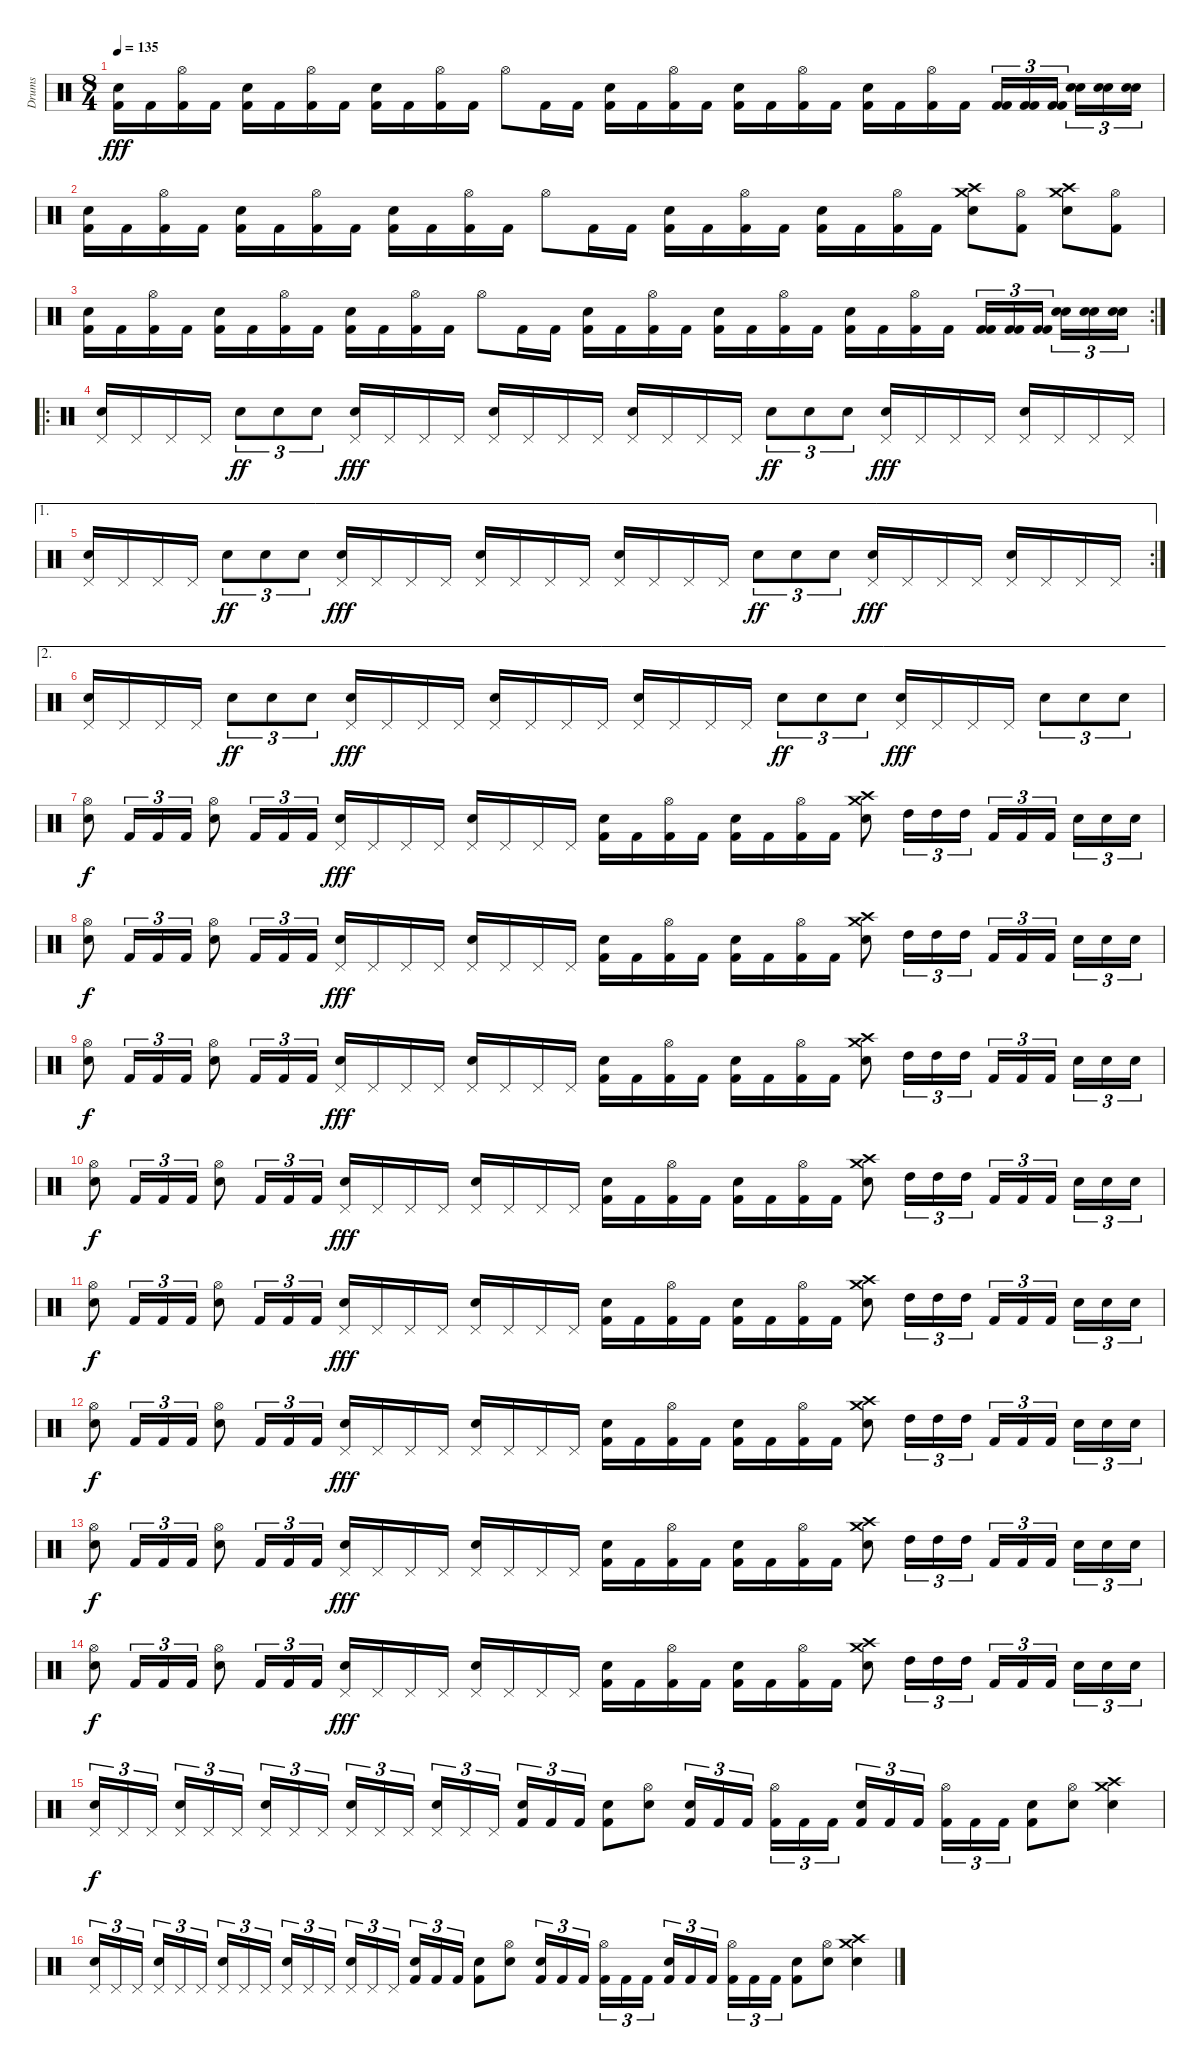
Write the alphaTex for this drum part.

\track ("Drums" "Drums") {instrument percussion}
\staff {score}
\articulation defaults
\ts (8 4)
\tempo 135
\clef neutral
\ks c
("Electric Snare (hit)" "Kick (hit) 2").16{dy fff} "Kick (hit) 2".16 ("Hi-Hat (open)" "Kick (hit) 2").16 "Kick (hit) 2".16 ("Electric Snare (hit)" "Kick (hit) 2").16 "Kick (hit) 2".16 ("Hi-Hat (open)" "Kick (hit) 2").16 "Kick (hit) 2".16 ("Kick (hit) 2" "Electric Snare (hit)").16 "Kick (hit) 2".16 ("Hi-Hat (open)" "Kick (hit) 2").16 "Kick (hit) 2".16 "Hi-Hat (open)".8 "Kick (hit) 2".16 "Kick (hit) 2".16 ("Kick (hit) 2" "Electric Snare (hit)").16 "Kick (hit) 2".16 ("Kick (hit) 2" "Hi-Hat (open)").16 "Kick (hit) 2".16 ("Electric Snare (hit)" "Kick (hit) 2").16 "Kick (hit) 2".16 ("Kick (hit) 2" "Hi-Hat (open)").16 "Kick (hit) 2".16 ("Electric Snare (hit)" "Kick (hit) 2").16 "Kick (hit) 2".16 ("Kick (hit) 2" "Hi-Hat (open)").16 "Kick (hit) 2".16 ("Kick (hit) 2" "Kick (hit) 2").16{tu (3 2)} ("Kick (hit) 2" "Kick (hit) 2").16{tu (3 2)} ("Kick (hit) 2" "Kick (hit) 2").16{tu (3 2)} ("Electric Snare (hit)" "Electric Snare (hit)").16{tu (3 2)} ("Electric Snare (hit)" "Electric Snare (hit)").16{tu (3 2)} ("Electric Snare (hit)" "Electric Snare (hit)").16{tu (3 2)} |
("Electric Snare (hit)" "Kick (hit) 2").16 "Kick (hit) 2".16 ("Hi-Hat (open)" "Kick (hit) 2").16 "Kick (hit) 2".16 ("Electric Snare (hit)" "Kick (hit) 2").16 "Kick (hit) 2".16 ("Hi-Hat (open)" "Kick (hit) 2").16 "Kick (hit) 2".16 ("Kick (hit) 2" "Electric Snare (hit)").16 "Kick (hit) 2".16 ("Hi-Hat (open)" "Kick (hit) 2").16 "Kick (hit) 2".16 "Hi-Hat (open)".8 "Kick (hit) 2".16 "Kick (hit) 2".16 ("Kick (hit) 2" "Electric Snare (hit)").16 "Kick (hit) 2".16 ("Kick (hit) 2" "Hi-Hat (open)").16 "Kick (hit) 2".16 ("Electric Snare (hit)" "Kick (hit) 2").16 "Kick (hit) 2".16 ("Kick (hit) 2" "Hi-Hat (open)").16 "Kick (hit) 2".16 ("Crash medium (hit)" "Crash high (hit)" "Electric Snare (hit)").8 ("Kick (hit) 2" "Hi-Hat (open)").8 ("Crash high (hit)" "Crash medium (hit)" "Electric Snare (hit)").8 ("Kick (hit) 2" "Hi-Hat (open)").8 |
\rc 2
("Electric Snare (hit)" "Kick (hit) 2").16 "Kick (hit) 2".16 ("Hi-Hat (open)" "Kick (hit) 2").16 "Kick (hit) 2".16 ("Electric Snare (hit)" "Kick (hit) 2").16 "Kick (hit) 2".16 ("Hi-Hat (open)" "Kick (hit) 2").16 "Kick (hit) 2".16 ("Kick (hit) 2" "Electric Snare (hit)").16 "Kick (hit) 2".16 ("Hi-Hat (open)" "Kick (hit) 2").16 "Kick (hit) 2".16 "Hi-Hat (open)".8 "Kick (hit) 2".16 "Kick (hit) 2".16 ("Kick (hit) 2" "Electric Snare (hit)").16 "Kick (hit) 2".16 ("Kick (hit) 2" "Hi-Hat (open)").16 "Kick (hit) 2".16 ("Electric Snare (hit)" "Kick (hit) 2").16 "Kick (hit) 2".16 ("Kick (hit) 2" "Hi-Hat (open)").16 "Kick (hit) 2".16 ("Electric Snare (hit)" "Kick (hit) 2").16 "Kick (hit) 2".16 ("Kick (hit) 2" "Hi-Hat (open)").16 "Kick (hit) 2".16 ("Kick (hit) 2" "Kick (hit) 2").16{tu (3 2)} ("Kick (hit) 2" "Kick (hit) 2").16{tu (3 2)} ("Kick (hit) 2" "Kick (hit) 2").16{tu (3 2)} ("Electric Snare (hit)" "Electric Snare (hit)").16{tu (3 2)} ("Electric Snare (hit)" "Electric Snare (hit)").16{tu (3 2)} ("Electric Snare (hit)" "Electric Snare (hit)").16{tu (3 2)} |
\ro
("Pedal Hi-Hat (hit)" "Electric Snare (hit)").16 "Pedal Hi-Hat (hit)".16 "Pedal Hi-Hat (hit)".16 "Pedal Hi-Hat (hit)".16 "Electric Snare (hit)".8{tu (3 2) dy ff} "Electric Snare (hit)".8{tu (3 2)} "Electric Snare (hit)".8{tu (3 2)} ("Pedal Hi-Hat (hit)" "Electric Snare (hit)").16{dy fff} "Pedal Hi-Hat (hit)".16 "Pedal Hi-Hat (hit)".16 "Pedal Hi-Hat (hit)".16 ("Electric Snare (hit)" "Pedal Hi-Hat (hit)").16 "Pedal Hi-Hat (hit)".16 "Pedal Hi-Hat (hit)".16 "Pedal Hi-Hat (hit)".16 ("Pedal Hi-Hat (hit)" "Electric Snare (hit)").16 "Pedal Hi-Hat (hit)".16 "Pedal Hi-Hat (hit)".16 "Pedal Hi-Hat (hit)".16 "Electric Snare (hit)".8{tu (3 2) dy ff} "Electric Snare (hit)".8{tu (3 2)} "Electric Snare (hit)".8{tu (3 2)} ("Electric Snare (hit)" "Pedal Hi-Hat (hit)").16{dy fff} "Pedal Hi-Hat (hit)".16 "Pedal Hi-Hat (hit)".16 "Pedal Hi-Hat (hit)".16 ("Pedal Hi-Hat (hit)" "Electric Snare (hit)").16 "Pedal Hi-Hat (hit)".16 "Pedal Hi-Hat (hit)".16 "Pedal Hi-Hat (hit)".16 |
\ae 1
\rc 2
("Pedal Hi-Hat (hit)" "Electric Snare (hit)").16 "Pedal Hi-Hat (hit)".16 "Pedal Hi-Hat (hit)".16 "Pedal Hi-Hat (hit)".16 "Electric Snare (hit)".8{tu (3 2) dy ff} "Electric Snare (hit)".8{tu (3 2)} "Electric Snare (hit)".8{tu (3 2)} ("Pedal Hi-Hat (hit)" "Electric Snare (hit)").16{dy fff} "Pedal Hi-Hat (hit)".16 "Pedal Hi-Hat (hit)".16 "Pedal Hi-Hat (hit)".16 ("Electric Snare (hit)" "Pedal Hi-Hat (hit)").16 "Pedal Hi-Hat (hit)".16 "Pedal Hi-Hat (hit)".16 "Pedal Hi-Hat (hit)".16 ("Pedal Hi-Hat (hit)" "Electric Snare (hit)").16 "Pedal Hi-Hat (hit)".16 "Pedal Hi-Hat (hit)".16 "Pedal Hi-Hat (hit)".16 "Electric Snare (hit)".8{tu (3 2) dy ff} "Electric Snare (hit)".8{tu (3 2)} "Electric Snare (hit)".8{tu (3 2)} ("Electric Snare (hit)" "Pedal Hi-Hat (hit)").16{dy fff} "Pedal Hi-Hat (hit)".16 "Pedal Hi-Hat (hit)".16 "Pedal Hi-Hat (hit)".16 ("Pedal Hi-Hat (hit)" "Electric Snare (hit)").16 "Pedal Hi-Hat (hit)".16 "Pedal Hi-Hat (hit)".16 "Pedal Hi-Hat (hit)".16 |
\ae 2
("Pedal Hi-Hat (hit)" "Electric Snare (hit)").16 "Pedal Hi-Hat (hit)".16 "Pedal Hi-Hat (hit)".16 "Pedal Hi-Hat (hit)".16 "Electric Snare (hit)".8{tu (3 2) dy ff} "Electric Snare (hit)".8{tu (3 2)} "Electric Snare (hit)".8{tu (3 2)} ("Pedal Hi-Hat (hit)" "Electric Snare (hit)").16{dy fff} "Pedal Hi-Hat (hit)".16 "Pedal Hi-Hat (hit)".16 "Pedal Hi-Hat (hit)".16 ("Electric Snare (hit)" "Pedal Hi-Hat (hit)").16 "Pedal Hi-Hat (hit)".16 "Pedal Hi-Hat (hit)".16 "Pedal Hi-Hat (hit)".16 ("Pedal Hi-Hat (hit)" "Electric Snare (hit)").16 "Pedal Hi-Hat (hit)".16 "Pedal Hi-Hat (hit)".16 "Pedal Hi-Hat (hit)".16 "Electric Snare (hit)".8{tu (3 2) dy ff} "Electric Snare (hit)".8{tu (3 2)} "Electric Snare (hit)".8{tu (3 2)} ("Electric Snare (hit)" "Pedal Hi-Hat (hit)").16{dy fff} "Pedal Hi-Hat (hit)".16 "Pedal Hi-Hat (hit)".16 "Pedal Hi-Hat (hit)".16 "Electric Snare (hit)".8{tu (3 2)} "Electric Snare (hit)".8{tu (3 2)} "Electric Snare (hit)".8{tu (3 2)} |
("Hi-Hat (open)" "Electric Snare (hit)").8{dy f} "Kick (hit) 2".16{tu (3 2)} "Kick (hit) 2".16{tu (3 2)} "Kick (hit) 2".16{tu (3 2)} ("Electric Snare (hit)" "Hi-Hat (open)").8 "Kick (hit) 2".16{tu (3 2)} "Kick (hit) 2".16{tu (3 2)} "Kick (hit) 2".16{tu (3 2)} ("Pedal Hi-Hat (hit)" "Electric Snare (hit)").16{dy fff} "Pedal Hi-Hat (hit)".16 "Pedal Hi-Hat (hit)".16 "Pedal Hi-Hat (hit)".16 ("Pedal Hi-Hat (hit)" "Electric Snare (hit)").16 "Pedal Hi-Hat (hit)".16 "Pedal Hi-Hat (hit)".16 "Pedal Hi-Hat (hit)".16 ("Electric Snare (hit)" "Kick (hit) 2").16 "Kick (hit) 2".16 ("Hi-Hat (open)" "Kick (hit) 2").16 "Kick (hit) 2".16 ("Kick (hit) 2" "Electric Snare (hit)").16 "Kick (hit) 2".16 ("Hi-Hat (open)" "Kick (hit) 2").16 "Kick (hit) 2".16 ("Crash high (hit)" "Crash medium (hit)" "Electric Snare (hit)").8 "High Tom (hit)".16{tu (3 2)} "High Tom (hit)".16{tu (3 2)} "High Tom (hit)".16{tu (3 2)} "Kick (hit) 2".16{tu (3 2)} "Kick (hit) 2".16{tu (3 2)} "Kick (hit) 2".16{tu (3 2)} "Electric Snare (hit)".16{tu (3 2)} "Electric Snare (hit)".16{tu (3 2)} "Electric Snare (hit)".16{tu (3 2)} |
("Hi-Hat (open)" "Electric Snare (hit)").8{dy f} "Kick (hit) 2".16{tu (3 2)} "Kick (hit) 2".16{tu (3 2)} "Kick (hit) 2".16{tu (3 2)} ("Electric Snare (hit)" "Hi-Hat (open)").8 "Kick (hit) 2".16{tu (3 2)} "Kick (hit) 2".16{tu (3 2)} "Kick (hit) 2".16{tu (3 2)} ("Pedal Hi-Hat (hit)" "Electric Snare (hit)").16{dy fff} "Pedal Hi-Hat (hit)".16 "Pedal Hi-Hat (hit)".16 "Pedal Hi-Hat (hit)".16 ("Pedal Hi-Hat (hit)" "Electric Snare (hit)").16 "Pedal Hi-Hat (hit)".16 "Pedal Hi-Hat (hit)".16 "Pedal Hi-Hat (hit)".16 ("Electric Snare (hit)" "Kick (hit) 2").16 "Kick (hit) 2".16 ("Hi-Hat (open)" "Kick (hit) 2").16 "Kick (hit) 2".16 ("Kick (hit) 2" "Electric Snare (hit)").16 "Kick (hit) 2".16 ("Hi-Hat (open)" "Kick (hit) 2").16 "Kick (hit) 2".16 ("Crash high (hit)" "Crash medium (hit)" "Electric Snare (hit)").8 "High Tom (hit)".16{tu (3 2)} "High Tom (hit)".16{tu (3 2)} "High Tom (hit)".16{tu (3 2)} "Kick (hit) 2".16{tu (3 2)} "Kick (hit) 2".16{tu (3 2)} "Kick (hit) 2".16{tu (3 2)} "Electric Snare (hit)".16{tu (3 2)} "Electric Snare (hit)".16{tu (3 2)} "Electric Snare (hit)".16{tu (3 2)} |
("Hi-Hat (open)" "Electric Snare (hit)").8{dy f} "Kick (hit) 2".16{tu (3 2)} "Kick (hit) 2".16{tu (3 2)} "Kick (hit) 2".16{tu (3 2)} ("Electric Snare (hit)" "Hi-Hat (open)").8 "Kick (hit) 2".16{tu (3 2)} "Kick (hit) 2".16{tu (3 2)} "Kick (hit) 2".16{tu (3 2)} ("Pedal Hi-Hat (hit)" "Electric Snare (hit)").16{dy fff} "Pedal Hi-Hat (hit)".16 "Pedal Hi-Hat (hit)".16 "Pedal Hi-Hat (hit)".16 ("Pedal Hi-Hat (hit)" "Electric Snare (hit)").16 "Pedal Hi-Hat (hit)".16 "Pedal Hi-Hat (hit)".16 "Pedal Hi-Hat (hit)".16 ("Electric Snare (hit)" "Kick (hit) 2").16 "Kick (hit) 2".16 ("Hi-Hat (open)" "Kick (hit) 2").16 "Kick (hit) 2".16 ("Kick (hit) 2" "Electric Snare (hit)").16 "Kick (hit) 2".16 ("Hi-Hat (open)" "Kick (hit) 2").16 "Kick (hit) 2".16 ("Crash high (hit)" "Crash medium (hit)" "Electric Snare (hit)").8 "High Tom (hit)".16{tu (3 2)} "High Tom (hit)".16{tu (3 2)} "High Tom (hit)".16{tu (3 2)} "Kick (hit) 2".16{tu (3 2)} "Kick (hit) 2".16{tu (3 2)} "Kick (hit) 2".16{tu (3 2)} "Electric Snare (hit)".16{tu (3 2)} "Electric Snare (hit)".16{tu (3 2)} "Electric Snare (hit)".16{tu (3 2)} |
("Hi-Hat (open)" "Electric Snare (hit)").8{dy f} "Kick (hit) 2".16{tu (3 2)} "Kick (hit) 2".16{tu (3 2)} "Kick (hit) 2".16{tu (3 2)} ("Electric Snare (hit)" "Hi-Hat (open)").8 "Kick (hit) 2".16{tu (3 2)} "Kick (hit) 2".16{tu (3 2)} "Kick (hit) 2".16{tu (3 2)} ("Pedal Hi-Hat (hit)" "Electric Snare (hit)").16{dy fff} "Pedal Hi-Hat (hit)".16 "Pedal Hi-Hat (hit)".16 "Pedal Hi-Hat (hit)".16 ("Pedal Hi-Hat (hit)" "Electric Snare (hit)").16 "Pedal Hi-Hat (hit)".16 "Pedal Hi-Hat (hit)".16 "Pedal Hi-Hat (hit)".16 ("Electric Snare (hit)" "Kick (hit) 2").16 "Kick (hit) 2".16 ("Hi-Hat (open)" "Kick (hit) 2").16 "Kick (hit) 2".16 ("Kick (hit) 2" "Electric Snare (hit)").16 "Kick (hit) 2".16 ("Hi-Hat (open)" "Kick (hit) 2").16 "Kick (hit) 2".16 ("Crash high (hit)" "Crash medium (hit)" "Electric Snare (hit)").8 "High Tom (hit)".16{tu (3 2)} "High Tom (hit)".16{tu (3 2)} "High Tom (hit)".16{tu (3 2)} "Kick (hit) 2".16{tu (3 2)} "Kick (hit) 2".16{tu (3 2)} "Kick (hit) 2".16{tu (3 2)} "Electric Snare (hit)".16{tu (3 2)} "Electric Snare (hit)".16{tu (3 2)} "Electric Snare (hit)".16{tu (3 2)} |
("Hi-Hat (open)" "Electric Snare (hit)").8{dy f} "Kick (hit) 2".16{tu (3 2)} "Kick (hit) 2".16{tu (3 2)} "Kick (hit) 2".16{tu (3 2)} ("Electric Snare (hit)" "Hi-Hat (open)").8 "Kick (hit) 2".16{tu (3 2)} "Kick (hit) 2".16{tu (3 2)} "Kick (hit) 2".16{tu (3 2)} ("Pedal Hi-Hat (hit)" "Electric Snare (hit)").16{dy fff} "Pedal Hi-Hat (hit)".16 "Pedal Hi-Hat (hit)".16 "Pedal Hi-Hat (hit)".16 ("Pedal Hi-Hat (hit)" "Electric Snare (hit)").16 "Pedal Hi-Hat (hit)".16 "Pedal Hi-Hat (hit)".16 "Pedal Hi-Hat (hit)".16 ("Electric Snare (hit)" "Kick (hit) 2").16 "Kick (hit) 2".16 ("Hi-Hat (open)" "Kick (hit) 2").16 "Kick (hit) 2".16 ("Kick (hit) 2" "Electric Snare (hit)").16 "Kick (hit) 2".16 ("Hi-Hat (open)" "Kick (hit) 2").16 "Kick (hit) 2".16 ("Crash high (hit)" "Crash medium (hit)" "Electric Snare (hit)").8 "High Tom (hit)".16{tu (3 2)} "High Tom (hit)".16{tu (3 2)} "High Tom (hit)".16{tu (3 2)} "Kick (hit) 2".16{tu (3 2)} "Kick (hit) 2".16{tu (3 2)} "Kick (hit) 2".16{tu (3 2)} "Electric Snare (hit)".16{tu (3 2)} "Electric Snare (hit)".16{tu (3 2)} "Electric Snare (hit)".16{tu (3 2)} |
("Hi-Hat (open)" "Electric Snare (hit)").8{dy f} "Kick (hit) 2".16{tu (3 2)} "Kick (hit) 2".16{tu (3 2)} "Kick (hit) 2".16{tu (3 2)} ("Electric Snare (hit)" "Hi-Hat (open)").8 "Kick (hit) 2".16{tu (3 2)} "Kick (hit) 2".16{tu (3 2)} "Kick (hit) 2".16{tu (3 2)} ("Pedal Hi-Hat (hit)" "Electric Snare (hit)").16{dy fff} "Pedal Hi-Hat (hit)".16 "Pedal Hi-Hat (hit)".16 "Pedal Hi-Hat (hit)".16 ("Pedal Hi-Hat (hit)" "Electric Snare (hit)").16 "Pedal Hi-Hat (hit)".16 "Pedal Hi-Hat (hit)".16 "Pedal Hi-Hat (hit)".16 ("Electric Snare (hit)" "Kick (hit) 2").16 "Kick (hit) 2".16 ("Hi-Hat (open)" "Kick (hit) 2").16 "Kick (hit) 2".16 ("Kick (hit) 2" "Electric Snare (hit)").16 "Kick (hit) 2".16 ("Hi-Hat (open)" "Kick (hit) 2").16 "Kick (hit) 2".16 ("Crash high (hit)" "Crash medium (hit)" "Electric Snare (hit)").8 "High Tom (hit)".16{tu (3 2)} "High Tom (hit)".16{tu (3 2)} "High Tom (hit)".16{tu (3 2)} "Kick (hit) 2".16{tu (3 2)} "Kick (hit) 2".16{tu (3 2)} "Kick (hit) 2".16{tu (3 2)} "Electric Snare (hit)".16{tu (3 2)} "Electric Snare (hit)".16{tu (3 2)} "Electric Snare (hit)".16{tu (3 2)} |
("Hi-Hat (open)" "Electric Snare (hit)").8{dy f} "Kick (hit) 2".16{tu (3 2)} "Kick (hit) 2".16{tu (3 2)} "Kick (hit) 2".16{tu (3 2)} ("Electric Snare (hit)" "Hi-Hat (open)").8 "Kick (hit) 2".16{tu (3 2)} "Kick (hit) 2".16{tu (3 2)} "Kick (hit) 2".16{tu (3 2)} ("Pedal Hi-Hat (hit)" "Electric Snare (hit)").16{dy fff} "Pedal Hi-Hat (hit)".16 "Pedal Hi-Hat (hit)".16 "Pedal Hi-Hat (hit)".16 ("Pedal Hi-Hat (hit)" "Electric Snare (hit)").16 "Pedal Hi-Hat (hit)".16 "Pedal Hi-Hat (hit)".16 "Pedal Hi-Hat (hit)".16 ("Electric Snare (hit)" "Kick (hit) 2").16 "Kick (hit) 2".16 ("Hi-Hat (open)" "Kick (hit) 2").16 "Kick (hit) 2".16 ("Kick (hit) 2" "Electric Snare (hit)").16 "Kick (hit) 2".16 ("Hi-Hat (open)" "Kick (hit) 2").16 "Kick (hit) 2".16 ("Crash high (hit)" "Crash medium (hit)" "Electric Snare (hit)").8 "High Tom (hit)".16{tu (3 2)} "High Tom (hit)".16{tu (3 2)} "High Tom (hit)".16{tu (3 2)} "Kick (hit) 2".16{tu (3 2)} "Kick (hit) 2".16{tu (3 2)} "Kick (hit) 2".16{tu (3 2)} "Electric Snare (hit)".16{tu (3 2)} "Electric Snare (hit)".16{tu (3 2)} "Electric Snare (hit)".16{tu (3 2)} |
("Hi-Hat (open)" "Electric Snare (hit)").8{dy f} "Kick (hit) 2".16{tu (3 2)} "Kick (hit) 2".16{tu (3 2)} "Kick (hit) 2".16{tu (3 2)} ("Electric Snare (hit)" "Hi-Hat (open)").8 "Kick (hit) 2".16{tu (3 2)} "Kick (hit) 2".16{tu (3 2)} "Kick (hit) 2".16{tu (3 2)} ("Pedal Hi-Hat (hit)" "Electric Snare (hit)").16{dy fff} "Pedal Hi-Hat (hit)".16 "Pedal Hi-Hat (hit)".16 "Pedal Hi-Hat (hit)".16 ("Pedal Hi-Hat (hit)" "Electric Snare (hit)").16 "Pedal Hi-Hat (hit)".16 "Pedal Hi-Hat (hit)".16 "Pedal Hi-Hat (hit)".16 ("Electric Snare (hit)" "Kick (hit) 2").16 "Kick (hit) 2".16 ("Hi-Hat (open)" "Kick (hit) 2").16 "Kick (hit) 2".16 ("Kick (hit) 2" "Electric Snare (hit)").16 "Kick (hit) 2".16 ("Hi-Hat (open)" "Kick (hit) 2").16 "Kick (hit) 2".16 ("Crash high (hit)" "Crash medium (hit)" "Electric Snare (hit)").8 "High Tom (hit)".16{tu (3 2)} "High Tom (hit)".16{tu (3 2)} "High Tom (hit)".16{tu (3 2)} "Kick (hit) 2".16{tu (3 2)} "Kick (hit) 2".16{tu (3 2)} "Kick (hit) 2".16{tu (3 2)} "Electric Snare (hit)".16{tu (3 2)} "Electric Snare (hit)".16{tu (3 2)} "Electric Snare (hit)".16{tu (3 2)} |
("Pedal Hi-Hat (hit)" "Electric Snare (hit)").16{tu (3 2) dy f} "Pedal Hi-Hat (hit)".16{tu (3 2)} "Pedal Hi-Hat (hit)".16{tu (3 2)} ("Electric Snare (hit)" "Pedal Hi-Hat (hit)").16{tu (3 2)} "Pedal Hi-Hat (hit)".16{tu (3 2)} "Pedal Hi-Hat (hit)".16{tu (3 2)} ("Pedal Hi-Hat (hit)" "Electric Snare (hit)").16{tu (3 2)} "Pedal Hi-Hat (hit)".16{tu (3 2)} "Pedal Hi-Hat (hit)".16{tu (3 2)} ("Electric Snare (hit)" "Pedal Hi-Hat (hit)").16{tu (3 2)} "Pedal Hi-Hat (hit)".16{tu (3 2)} "Pedal Hi-Hat (hit)".16{tu (3 2)} ("Pedal Hi-Hat (hit)" "Electric Snare (hit)").16{tu (3 2)} "Pedal Hi-Hat (hit)".16{tu (3 2)} "Pedal Hi-Hat (hit)".16{tu (3 2)} ("Electric Snare (hit)" "Kick (hit) 2").16{tu (3 2)} "Kick (hit) 2".16{tu (3 2)} "Kick (hit) 2".16{tu (3 2)} ("Kick (hit) 2" "Electric Snare (hit)").8 ("Electric Snare (hit)" "Hi-Hat (open)").8 ("Kick (hit) 2" "Electric Snare (hit)").16{tu (3 2)} "Kick (hit) 2".16{tu (3 2)} "Kick (hit) 2".16{tu (3 2)} ("Hi-Hat (open)" "Kick (hit) 2").16{tu (3 2)} "Kick (hit) 2".16{tu (3 2)} "Kick (hit) 2".16{tu (3 2)} ("Kick (hit) 2" "Electric Snare (hit)").16{tu (3 2)} "Kick (hit) 2".16{tu (3 2)} "Kick (hit) 2".16{tu (3 2)} ("Hi-Hat (open)" "Kick (hit) 2").16{tu (3 2)} "Kick (hit) 2".16{tu (3 2)} "Kick (hit) 2".16{tu (3 2)} ("Kick (hit) 2" "Electric Snare (hit)").8 ("Hi-Hat (open)" "Electric Snare (hit)").8 ("Crash high (hit)" "Crash medium (hit)" "Electric Snare (hit)").4 |
("Pedal Hi-Hat (hit)" "Electric Snare (hit)").16{tu (3 2)} "Pedal Hi-Hat (hit)".16{tu (3 2)} "Pedal Hi-Hat (hit)".16{tu (3 2)} ("Electric Snare (hit)" "Pedal Hi-Hat (hit)").16{tu (3 2)} "Pedal Hi-Hat (hit)".16{tu (3 2)} "Pedal Hi-Hat (hit)".16{tu (3 2)} ("Pedal Hi-Hat (hit)" "Electric Snare (hit)").16{tu (3 2)} "Pedal Hi-Hat (hit)".16{tu (3 2)} "Pedal Hi-Hat (hit)".16{tu (3 2)} ("Electric Snare (hit)" "Pedal Hi-Hat (hit)").16{tu (3 2)} "Pedal Hi-Hat (hit)".16{tu (3 2)} "Pedal Hi-Hat (hit)".16{tu (3 2)} ("Pedal Hi-Hat (hit)" "Electric Snare (hit)").16{tu (3 2)} "Pedal Hi-Hat (hit)".16{tu (3 2)} "Pedal Hi-Hat (hit)".16{tu (3 2)} ("Electric Snare (hit)" "Kick (hit) 2").16{tu (3 2)} "Kick (hit) 2".16{tu (3 2)} "Kick (hit) 2".16{tu (3 2)} ("Kick (hit) 2" "Electric Snare (hit)").8 ("Electric Snare (hit)" "Hi-Hat (open)").8 ("Kick (hit) 2" "Electric Snare (hit)").16{tu (3 2)} "Kick (hit) 2".16{tu (3 2)} "Kick (hit) 2".16{tu (3 2)} ("Hi-Hat (open)" "Kick (hit) 2").16{tu (3 2)} "Kick (hit) 2".16{tu (3 2)} "Kick (hit) 2".16{tu (3 2)} ("Kick (hit) 2" "Electric Snare (hit)").16{tu (3 2)} "Kick (hit) 2".16{tu (3 2)} "Kick (hit) 2".16{tu (3 2)} ("Hi-Hat (open)" "Kick (hit) 2").16{tu (3 2)} "Kick (hit) 2".16{tu (3 2)} "Kick (hit) 2".16{tu (3 2)} ("Kick (hit) 2" "Electric Snare (hit)").8 ("Hi-Hat (open)" "Electric Snare (hit)").8 ("Crash high (hit)" "Crash medium (hit)" "Electric Snare (hit)").4
